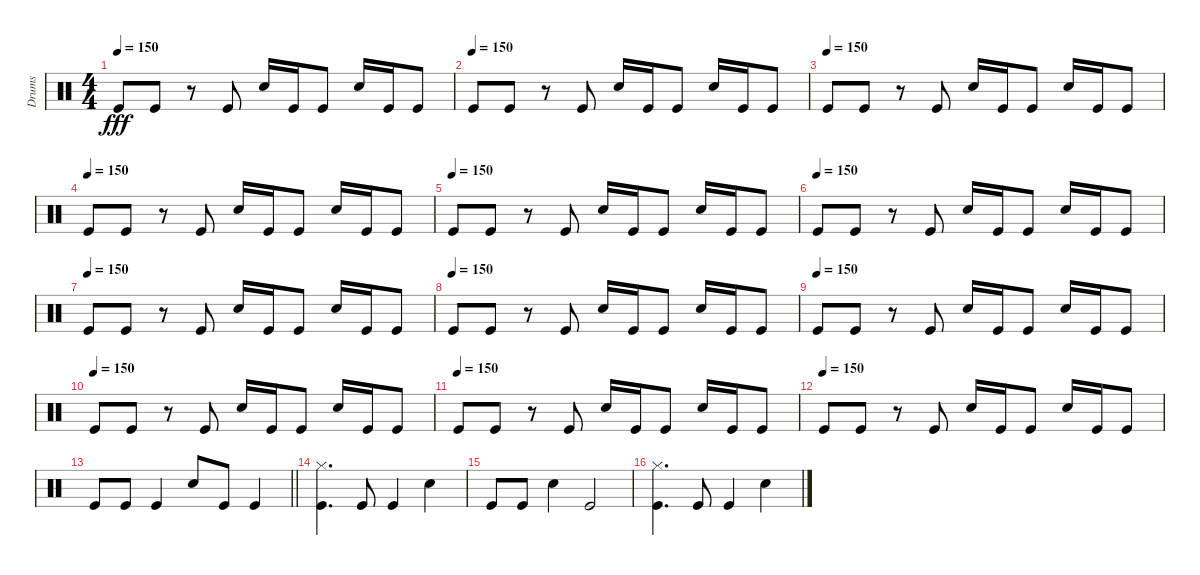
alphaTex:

\track ("Drums" "Drums") {instrument percussion}
\staff {score}
\articulation defaults
\ts (4 4)
\tempo 150
\clef neutral
\ks c "Kick (hit)".8{dy fff} "Kick (hit)".8
r.8 "Kick (hit)".8 "Snare (hit) 2".16 "Kick (hit)".16 "Kick (hit)".8 "Snare (hit) 2".16 "Kick (hit)".16 "Kick (hit)".8 |
\tempo (150)
"Kick (hit)".8 "Kick (hit)".8 r.8 "Kick (hit)".8 "Snare (hit) 2".16 "Kick (hit)".16 "Kick (hit)".8 "Snare (hit) 2".16 "Kick (hit)".16 "Kick (hit)".8 |
\tempo (150)
"Kick (hit)".8 "Kick (hit)".8 r.8 "Kick (hit)".8 "Snare (hit) 2".16 "Kick (hit)".16 "Kick (hit)".8 "Snare (hit) 2".16 "Kick (hit)".16 "Kick (hit)".8 |
\tempo (150)
"Kick (hit)".8 "Kick (hit)".8 r.8 "Kick (hit)".8 "Snare (hit) 2".16 "Kick (hit)".16 "Kick (hit)".8 "Snare (hit) 2".16 "Kick (hit)".16 "Kick (hit)".8 |
\tempo (150)
"Kick (hit)".8 "Kick (hit)".8 r.8 "Kick (hit)".8 "Snare (hit) 2".16 "Kick (hit)".16 "Kick (hit)".8 "Snare (hit) 2".16 "Kick (hit)".16 "Kick (hit)".8 |
\tempo (150)
"Kick (hit)".8 "Kick (hit)".8 r.8 "Kick (hit)".8 "Snare (hit) 2".16 "Kick (hit)".16 "Kick (hit)".8 "Snare (hit) 2".16 "Kick (hit)".16 "Kick (hit)".8 |
\tempo (150)
"Kick (hit)".8 "Kick (hit)".8 r.8 "Kick (hit)".8 "Snare (hit) 2".16 "Kick (hit)".16 "Kick (hit)".8 "Snare (hit) 2".16 "Kick (hit)".16 "Kick (hit)".8 |
\tempo (150)
"Kick (hit)".8 "Kick (hit)".8 r.8 "Kick (hit)".8 "Snare (hit) 2".16 "Kick (hit)".16 "Kick (hit)".8 "Snare (hit) 2".16 "Kick (hit)".16 "Kick (hit)".8 |
\tempo (150)
"Kick (hit)".8 "Kick (hit)".8 r.8 "Kick (hit)".8 "Snare (hit) 2".16 "Kick (hit)".16 "Kick (hit)".8 "Snare (hit) 2".16 "Kick (hit)".16 "Kick (hit)".8 |
\tempo (150)
"Kick (hit)".8 "Kick (hit)".8 r.8 "Kick (hit)".8 "Snare (hit) 2".16 "Kick (hit)".16 "Kick (hit)".8 "Snare (hit) 2".16 "Kick (hit)".16 "Kick (hit)".8 |
\tempo (150)
"Kick (hit)".8 "Kick (hit)".8 r.8 "Kick (hit)".8 "Snare (hit) 2".16 "Kick (hit)".16 "Kick (hit)".8 "Snare (hit) 2".16 "Kick (hit)".16 "Kick (hit)".8 |
\tempo (150)
"Kick (hit)".8 "Kick (hit)".8 r.8 "Kick (hit)".8 "Snare (hit) 2".16 "Kick (hit)".16 "Kick (hit)".8 "Snare (hit) 2".16 "Kick (hit)".16 "Kick (hit)".8 |
\barLineRight lightlight "Kick (hit)".8 "Kick (hit)".8 "Kick (hit)".4 "Snare (hit) 2".8 "Kick (hit)".8 "Kick (hit)".4
|
("Kick (hit)" "Hi-Hat (closed)").4{d} "Kick (hit)".8 "Kick (hit)".4 "Snare (hit) 2".4 |
"Kick (hit)".8 "Kick (hit)".8 "Snare (hit) 2".4 "Kick (hit)".2 |
("Kick (hit)" "Hi-Hat (closed)").4{d} "Kick (hit)".8 "Kick (hit)".4 "Snare (hit) 2".4
